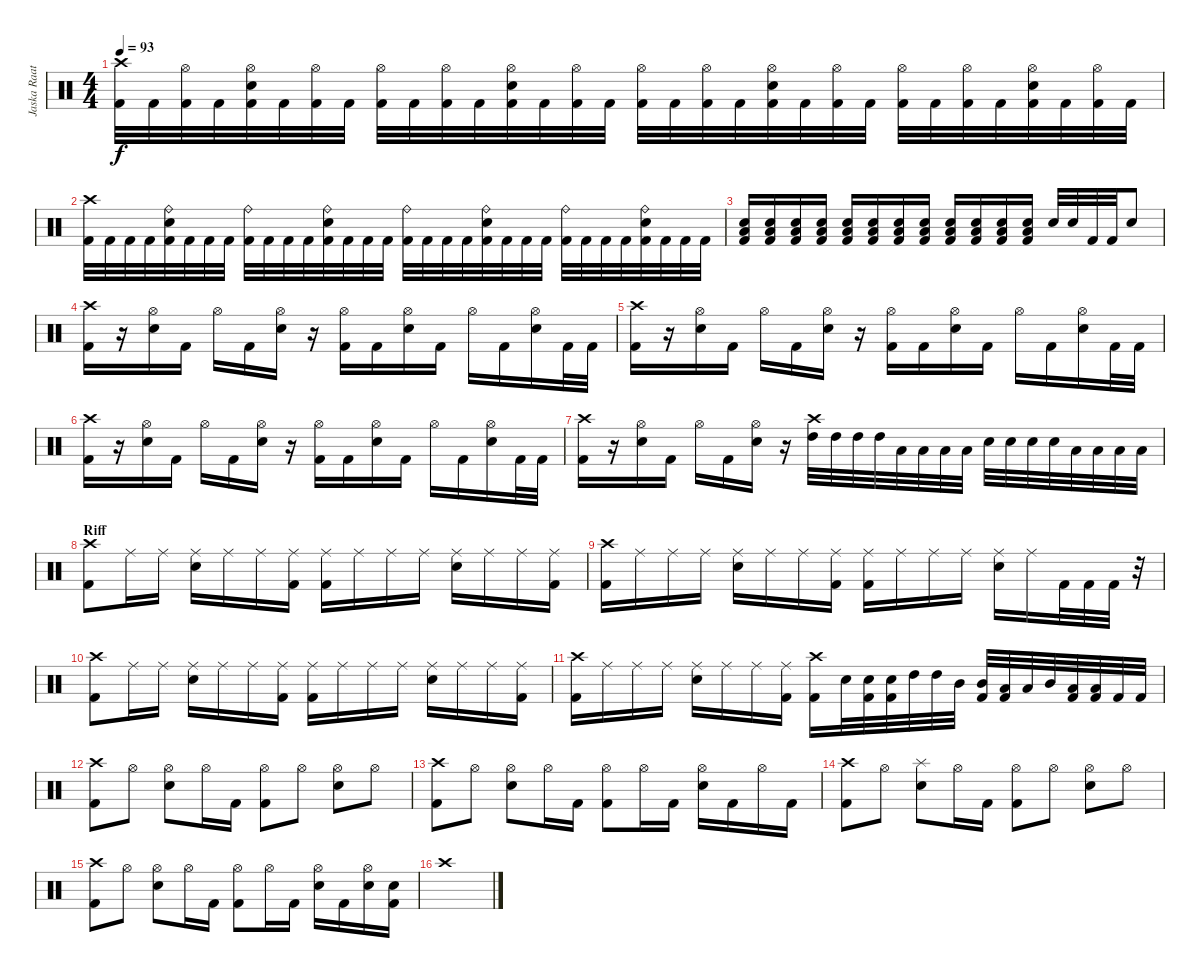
\track ("Jaska Raatikainen" "Jaska Raat") {instrument percussion}
\staff {score}
\articulation defaults
\ts (4 4)
\tempo 93
\clef neutral
\ks c
("Crash high (hit)" "Kick (hit) 2").32{dy f} "Kick (hit) 2".32 ("Hi-Hat (open)" "Kick (hit) 2").32 "Kick (hit) 2".32 ("Hi-Hat (open)" "Snare (hit) 2" "Kick (hit) 2").32 "Kick (hit) 2".32 ("Hi-Hat (open)" "Kick (hit) 2").32 "Kick (hit) 2".32 ("Hi-Hat (open)" "Kick (hit) 2").32 "Kick (hit) 2".32 ("Hi-Hat (open)" "Kick (hit) 2").32 "Kick (hit) 2".32 ("Hi-Hat (open)" "Snare (hit) 2" "Kick (hit) 2").32 "Kick (hit) 2".32 ("Hi-Hat (open)" "Kick (hit) 2").32 "Kick (hit) 2".32 ("Hi-Hat (open)" "Kick (hit) 2").32 "Kick (hit) 2".32 ("Hi-Hat (open)" "Kick (hit) 2").32 "Kick (hit) 2".32 ("Hi-Hat (open)" "Snare (hit) 2" "Kick (hit) 2").32 "Kick (hit) 2".32 ("Hi-Hat (open)" "Kick (hit) 2").32 "Kick (hit) 2".32 ("Hi-Hat (open)" "Kick (hit) 2").32 "Kick (hit) 2".32 ("Hi-Hat (open)" "Kick (hit) 2").32 "Kick (hit) 2".32 ("Hi-Hat (open)" "Snare (hit) 2" "Kick (hit) 2").32 "Kick (hit) 2".32 ("Hi-Hat (open)" "Kick (hit) 2").32 "Kick (hit) 2".32 |
("Crash high (hit)" "Kick (hit) 2").32 "Kick (hit) 2".32 "Kick (hit) 2".32 "Kick (hit) 2".32 ("Ride (bell)" "Snare (hit) 2" "Kick (hit) 2").32 "Kick (hit) 2".32 "Kick (hit) 2".32 "Kick (hit) 2".32 ("Ride (bell)" "Kick (hit) 2").32 "Kick (hit) 2".32 "Kick (hit) 2".32 "Kick (hit) 2".32 ("Ride (bell)" "Snare (hit) 2" "Kick (hit) 2").32 "Kick (hit) 2".32 "Kick (hit) 2".32 "Kick (hit) 2".32 ("Ride (bell)" "Kick (hit) 2").32 "Kick (hit) 2".32 "Kick (hit) 2".32 "Kick (hit) 2".32 ("Ride (bell)" "Snare (hit) 2" "Kick (hit) 2").32 "Kick (hit) 2".32 "Kick (hit) 2".32 "Kick (hit) 2".32 ("Ride (bell)" "Kick (hit) 2").32 "Kick (hit) 2".32 "Kick (hit) 2".32 "Kick (hit) 2".32 ("Ride (bell)" "Snare (hit) 2" "Kick (hit) 2").32 "Kick (hit) 2".32 "Kick (hit) 2".32 "Kick (hit) 2".32 |
("Snare (hit) 2" "Low Tom (hit)" "Kick (hit) 2").16{volume 7} ("Snare (hit) 2" "Low Tom (hit)" "Kick (hit) 2").16 ("Snare (hit) 2" "Low Tom (hit)" "Kick (hit) 2").16{volume 8} ("Snare (hit) 2" "Low Tom (hit)" "Kick (hit) 2").16 ("Snare (hit) 2" "Low Tom (hit)" "Kick (hit) 2").16{volume 10} ("Snare (hit) 2" "Low Tom (hit)" "Kick (hit) 2").16 ("Snare (hit) 2" "Low Tom (hit)" "Kick (hit) 2").16{volume 12} ("Snare (hit) 2" "Low Tom (hit)" "Kick (hit) 2").16 ("Snare (hit) 2" "Low Tom (hit)" "Kick (hit) 2").16{volume 14} ("Snare (hit) 2" "Low Tom (hit)" "Kick (hit) 2").16 ("Snare (hit) 2" "Low Tom (hit)" "Kick (hit) 2").16 ("Snare (hit) 2" "Low Tom (hit)" "Kick (hit) 2").16 "Snare (hit) 2".32{volume 14} "Snare (hit) 2".32 "Kick (hit) 2".32 "Kick (hit) 2".32 "Snare (hit) 2".8 |
("Crash high (hit)" "Kick (hit) 2").16{volume 14} r.16 ("Hi-Hat (open)" "Snare (hit) 2").16 "Kick (hit) 2".16 "Hi-Hat (open)".16 "Kick (hit) 2".16 ("Hi-Hat (open)" "Snare (hit) 2").16 r.16 ("Hi-Hat (open)" "Kick (hit) 2").16 "Kick (hit) 2".16 ("Hi-Hat (open)" "Snare (hit) 2").16 "Kick (hit) 2".16 "Hi-Hat (open)".16 "Kick (hit) 2".16 ("Hi-Hat (open)" "Snare (hit) 2").16 "Kick (hit) 2".32 "Kick (hit) 2".32 |
("Crash high (hit)" "Kick (hit) 2").16{volume 14} r.16 ("Hi-Hat (open)" "Snare (hit) 2").16 "Kick (hit) 2".16 "Hi-Hat (open)".16 "Kick (hit) 2".16 ("Hi-Hat (open)" "Snare (hit) 2").16 r.16 ("Hi-Hat (open)" "Kick (hit) 2").16 "Kick (hit) 2".16 ("Hi-Hat (open)" "Snare (hit) 2").16 "Kick (hit) 2".16 "Hi-Hat (open)".16 "Kick (hit) 2".16 ("Hi-Hat (open)" "Snare (hit) 2").16 "Kick (hit) 2".32 "Kick (hit) 2".32 |
("Crash high (hit)" "Kick (hit) 2").16{volume 14} r.16 ("Hi-Hat (open)" "Snare (hit) 2").16 "Kick (hit) 2".16 "Hi-Hat (open)".16 "Kick (hit) 2".16 ("Hi-Hat (open)" "Snare (hit) 2").16 r.16 ("Hi-Hat (open)" "Kick (hit) 2").16 "Kick (hit) 2".16 ("Hi-Hat (open)" "Snare (hit) 2").16 "Kick (hit) 2".16 "Hi-Hat (open)".16 "Kick (hit) 2".16 ("Hi-Hat (open)" "Snare (hit) 2").16 "Kick (hit) 2".32 "Kick (hit) 2".32 |
("Crash high (hit)" "Kick (hit) 2").16{volume 14} r.16 ("Hi-Hat (open)" "Snare (hit) 2").16 "Kick (hit) 2".16 "Hi-Hat (open)".16 "Kick (hit) 2".16 ("Hi-Hat (open)" "Snare (hit) 2").16 r.16 ("Crash high (hit)" "High Tom (hit)").32 "High Tom (hit)".32 "High Tom (hit)".32 "High Tom (hit)".32 "Low Tom (hit)".32 "Low Tom (hit)".32 "Low Tom (hit)".32 "Low Tom (hit)".32 "Snare (hit) 2".32 "Snare (hit) 2".32 "Snare (hit) 2".32 "Snare (hit) 2".32 "Low Tom (hit)".32 "Low Tom (hit)".32 "Low Tom (hit)".32 "Low Tom (hit)".32 |
\section ("" "Riff")
("Crash high (hit)" "Kick (hit) 2").8 "Ride (middle)".16 "Ride (middle)".16 ("Ride (middle)" "Snare (hit) 2").16 "Ride (middle)".16 "Ride (middle)".16 ("Ride (middle)" "Kick (hit) 2").16 ("Ride (middle)" "Kick (hit) 2").16 "Ride (middle)".16 "Ride (middle)".16 "Ride (middle)".16 ("Ride (middle)" "Snare (hit) 2").16 "Ride (middle)".16 "Ride (middle)".16 ("Ride (middle)" "Kick (hit) 2").16 |
("Crash high (hit)" "Kick (hit) 2").16 "Ride (middle)".16 "Ride (middle)".16 "Ride (middle)".16 ("Ride (middle)" "Snare (hit) 2").16 "Ride (middle)".16 "Ride (middle)".16 ("Ride (middle)" "Kick (hit) 2").16 ("Ride (middle)" "Kick (hit) 2").16 "Ride (middle)".16 "Ride (middle)".16 "Ride (middle)".16 ("Ride (middle)" "Snare (hit) 2").16 "Ride (middle)".16 "Kick (hit) 2".32 "Kick (hit) 2".32 "Kick (hit) 2".32 r.32 |
("Crash high (hit)" "Kick (hit) 2").8 "Ride (middle)".16 "Ride (middle)".16 ("Ride (middle)" "Snare (hit) 2").16 "Ride (middle)".16 "Ride (middle)".16 ("Ride (middle)" "Kick (hit) 2").16 ("Ride (middle)" "Kick (hit) 2").16 "Ride (middle)".16 "Ride (middle)".16 "Ride (middle)".16 ("Ride (middle)" "Snare (hit) 2").16 "Ride (middle)".16 "Ride (middle)".16 ("Ride (middle)" "Kick (hit) 2").16 |
("Crash high (hit)" "Kick (hit) 2").16 "Ride (middle)".16 "Ride (middle)".16 "Ride (middle)".16 ("Ride (middle)" "Snare (hit) 2").16 "Ride (middle)".16 "Ride (middle)".16 ("Ride (middle)" "Kick (hit) 2").16 ("Crash high (hit)" "Kick (hit) 2").16 "Snare (hit) 2".32 ("Snare (hit) 2" "Kick (hit) 2").32 ("Snare (hit) 2" "Kick (hit) 2").32 "High Tom (hit)".32 "High Tom (hit)".32 "Mid Tom (hit)".32 ("Mid Tom (hit)" "Kick (hit) 2").32 ("Low Tom (hit)" "Kick (hit) 2").32 "Low Tom (hit)".32 "Mid Tom (hit)".32 ("Low Tom (hit)" "Kick (hit) 2").32 ("Low Tom (hit)" "Kick (hit) 2").32 "Kick (hit) 2".32 "Kick (hit) 2".32 |
("Crash high (hit)" "Kick (hit) 2").8 "Hi-Hat (open)".8 ("Hi-Hat (open)" "Snare (hit) 2").8 "Hi-Hat (open)".16 "Kick (hit) 2".16 ("Hi-Hat (open)" "Kick (hit) 2").8 "Hi-Hat (open)".8 ("Hi-Hat (open)" "Snare (hit) 2").8 "Hi-Hat (open)".8 |
("Crash high (hit)" "Kick (hit) 2").8 "Hi-Hat (open)".8 ("Hi-Hat (open)" "Snare (hit) 2").8 "Hi-Hat (open)".16 "Kick (hit) 2".16 ("Hi-Hat (open)" "Kick (hit) 2").8 "Hi-Hat (open)".16 "Kick (hit) 2".16 ("Hi-Hat (open)" "Snare (hit) 2").16 "Kick (hit) 2".16 "Hi-Hat (open)".16 "Kick (hit) 2".16 |
("Crash high (hit)" "Kick (hit) 2").8 "Hi-Hat (open)".8 ("Splash (hit)" "Snare (hit) 2").8 "Hi-Hat (open)".16 "Kick (hit) 2".16 ("Hi-Hat (open)" "Kick (hit) 2").8 "Hi-Hat (open)".8 ("Hi-Hat (open)" "Snare (hit) 2").8 "Hi-Hat (open)".8 |
("Crash high (hit)" "Kick (hit) 2").8 "Hi-Hat (open)".8 ("Hi-Hat (open)" "Snare (hit) 2").8 "Hi-Hat (open)".16 "Kick (hit) 2".16 ("Hi-Hat (open)" "Kick (hit) 2").8 "Hi-Hat (open)".16 "Kick (hit) 2".16 ("Hi-Hat (open)" "Snare (hit) 2").16 "Kick (hit) 2".16 ("Hi-Hat (open)" "Snare (hit) 2").16 ("Snare (hit) 2" "Kick (hit) 2").16 |
"Crash high (hit)".1
